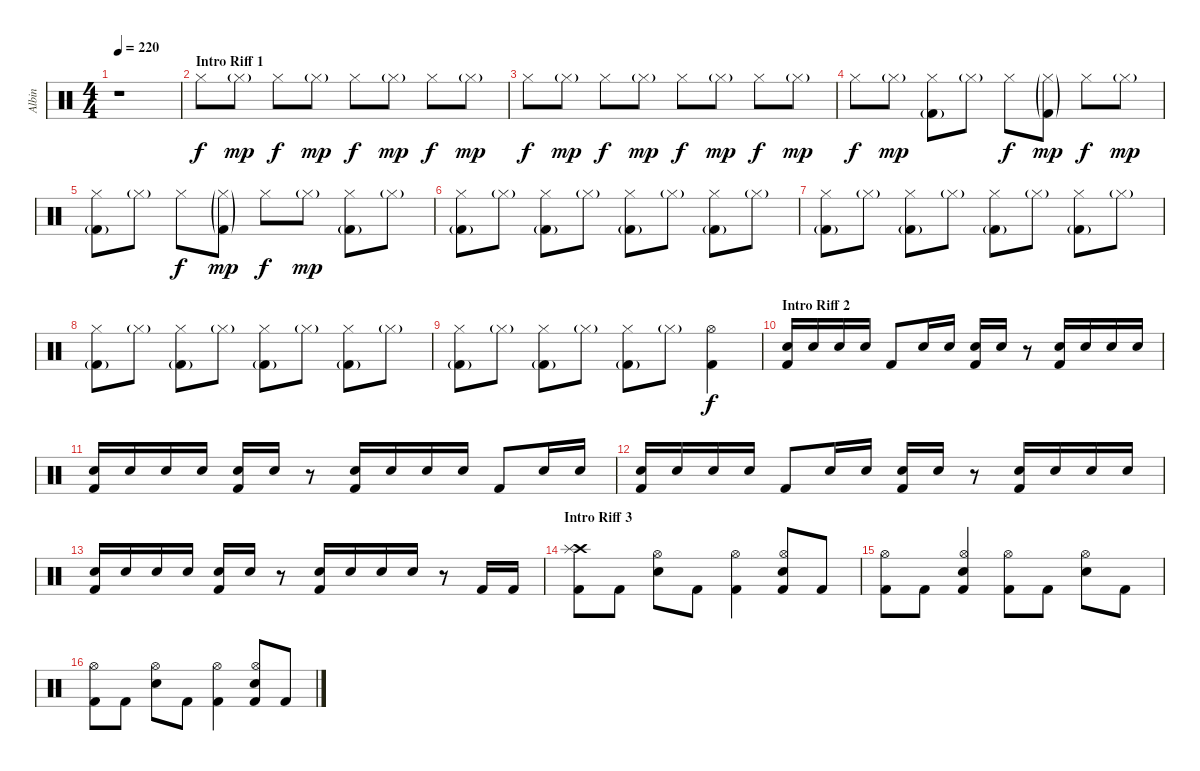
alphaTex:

\track ("Albin" "Albin") {instrument percussion}
\staff {score}
\articulation defaults
\ts (4 4)
\tempo 220
\clef neutral
\ks c
r.1{dy f} |
\section ("" "Intro Riff 1")
"Hi-Hat (closed)".8 "Hi-Hat (closed)"{g}.8{dy mp} "Hi-Hat (closed)".8{dy f} "Hi-Hat (closed)"{g}.8{dy mp} "Hi-Hat (closed)".8{dy f} "Hi-Hat (closed)"{g}.8{dy mp} "Hi-Hat (closed)".8{dy f} "Hi-Hat (closed)"{g}.8{dy mp} |
"Hi-Hat (closed)".8{dy f} "Hi-Hat (closed)"{g}.8{dy mp} "Hi-Hat (closed)".8{dy f} "Hi-Hat (closed)"{g}.8{dy mp} "Hi-Hat (closed)".8{dy f} "Hi-Hat (closed)"{g}.8{dy mp} "Hi-Hat (closed)".8{dy f} "Hi-Hat (closed)"{g}.8{dy mp} |
"Hi-Hat (closed)".8{dy f} "Hi-Hat (closed)"{g}.8{dy mp} ("Hi-Hat (closed)" "Kick (hit) 2"{g}).8 "Hi-Hat (closed)"{g}.8 "Hi-Hat (closed)".8{dy f} ("Hi-Hat (closed)"{g} "Kick (hit) 2"{g}).8{dy mp} "Hi-Hat (closed)".8{dy f} "Hi-Hat (closed)"{g}.8{dy mp} |
("Hi-Hat (closed)" "Kick (hit) 2"{g}).8 "Hi-Hat (closed)"{g}.8 "Hi-Hat (closed)".8{dy f} ("Hi-Hat (closed)"{g} "Kick (hit) 2"{g}).8{dy mp} "Hi-Hat (closed)".8{dy f} "Hi-Hat (closed)"{g}.8{dy mp} ("Hi-Hat (closed)" "Kick (hit) 2"{g}).8 "Hi-Hat (closed)"{g}.8 |
("Hi-Hat (closed)" "Kick (hit) 2"{g}).8 "Hi-Hat (closed)"{g}.8 ("Hi-Hat (closed)" "Kick (hit) 2"{g}).8 "Hi-Hat (closed)"{g}.8 ("Hi-Hat (closed)" "Kick (hit) 2"{g}).8 "Hi-Hat (closed)"{g}.8 ("Hi-Hat (closed)" "Kick (hit) 2"{g}).8 "Hi-Hat (closed)"{g}.8 |
("Hi-Hat (closed)" "Kick (hit) 2"{g}).8 "Hi-Hat (closed)"{g}.8 ("Hi-Hat (closed)" "Kick (hit) 2"{g}).8 "Hi-Hat (closed)"{g}.8 ("Hi-Hat (closed)" "Kick (hit) 2"{g}).8 "Hi-Hat (closed)"{g}.8 ("Hi-Hat (closed)" "Kick (hit) 2"{g}).8 "Hi-Hat (closed)"{g}.8 |
("Hi-Hat (closed)" "Kick (hit) 2"{g}).8 "Hi-Hat (closed)"{g}.8 ("Hi-Hat (closed)" "Kick (hit) 2"{g}).8 "Hi-Hat (closed)"{g}.8 ("Hi-Hat (closed)" "Kick (hit) 2"{g}).8 "Hi-Hat (closed)"{g}.8 ("Hi-Hat (closed)" "Kick (hit) 2"{g}).8 "Hi-Hat (closed)"{g}.8 |
("Hi-Hat (closed)" "Kick (hit) 2"{g}).8 "Hi-Hat (closed)"{g}.8 ("Hi-Hat (closed)" "Kick (hit) 2"{g}).8 "Hi-Hat (closed)"{g}.8 ("Hi-Hat (closed)" "Kick (hit) 2"{g}).8 "Hi-Hat (closed)"{g}.8 ("Hi-Hat (open)" "Kick (hit) 2").4{dy f} |
\section ("" "Intro Riff 2")
("Electric Snare (hit)" "Kick (hit) 2").16 "Electric Snare (hit)".16 "Electric Snare (hit)".16 "Electric Snare (hit)".16 "Kick (hit) 2".8 "Electric Snare (hit)".16 "Electric Snare (hit)".16 ("Electric Snare (hit)" "Kick (hit) 2").16 "Electric Snare (hit)".16 r.8 ("Electric Snare (hit)" "Kick (hit) 2").16 "Electric Snare (hit)".16 "Electric Snare (hit)".16 "Electric Snare (hit)".16 |
("Electric Snare (hit)" "Kick (hit) 2").16 "Electric Snare (hit)".16 "Electric Snare (hit)".16 "Electric Snare (hit)".16 ("Electric Snare (hit)" "Kick (hit) 2").16 "Electric Snare (hit)".16 r.8 ("Electric Snare (hit)" "Kick (hit) 2").16 "Electric Snare (hit)".16 "Electric Snare (hit)".16 "Electric Snare (hit)".16 "Kick (hit) 2".8 "Electric Snare (hit)".16 "Electric Snare (hit)".16 |
("Electric Snare (hit)" "Kick (hit) 2").16 "Electric Snare (hit)".16 "Electric Snare (hit)".16 "Electric Snare (hit)".16 "Kick (hit) 2".8 "Electric Snare (hit)".16 "Electric Snare (hit)".16 ("Electric Snare (hit)" "Kick (hit) 2").16 "Electric Snare (hit)".16 r.8 ("Electric Snare (hit)" "Kick (hit) 2").16 "Electric Snare (hit)".16 "Electric Snare (hit)".16 "Electric Snare (hit)".16 |
("Electric Snare (hit)" "Kick (hit) 2").16 "Electric Snare (hit)".16 "Electric Snare (hit)".16 "Electric Snare (hit)".16 ("Electric Snare (hit)" "Kick (hit) 2").16 "Electric Snare (hit)".16 r.8 ("Electric Snare (hit)" "Kick (hit) 2").16 "Electric Snare (hit)".16 "Electric Snare (hit)".16 "Electric Snare (hit)".16 r.8 "Kick (hit) 2".16 "Kick (hit) 2".16 |
\section ("" "Intro Riff 3")
("Kick (hit) 2" "Crash high (hit)" "Splash (hit)").8 "Kick (hit) 2".8 ("Electric Snare (hit)" "Hi-Hat (open)").8 "Kick (hit) 2".8 ("Kick (hit) 2" "Hi-Hat (open)").4 ("Kick (hit) 2" "Electric Snare (hit)" "Hi-Hat (open)").8 "Kick (hit) 2".8 |
("Kick (hit) 2" "Hi-Hat (open)").8 "Kick (hit) 2".8 ("Kick (hit) 2" "Electric Snare (hit)" "Hi-Hat (open)").4 ("Kick (hit) 2" "Hi-Hat (open)").8 "Kick (hit) 2".8 ("Electric Snare (hit)" "Hi-Hat (open)").8 "Kick (hit) 2".8 |
("Kick (hit) 2" "Hi-Hat (open)").8 "Kick (hit) 2".8 ("Electric Snare (hit)" "Hi-Hat (open)").8 "Kick (hit) 2".8 ("Kick (hit) 2" "Hi-Hat (open)").4 ("Kick (hit) 2" "Electric Snare (hit)" "Hi-Hat (open)").8 "Kick (hit) 2".8
